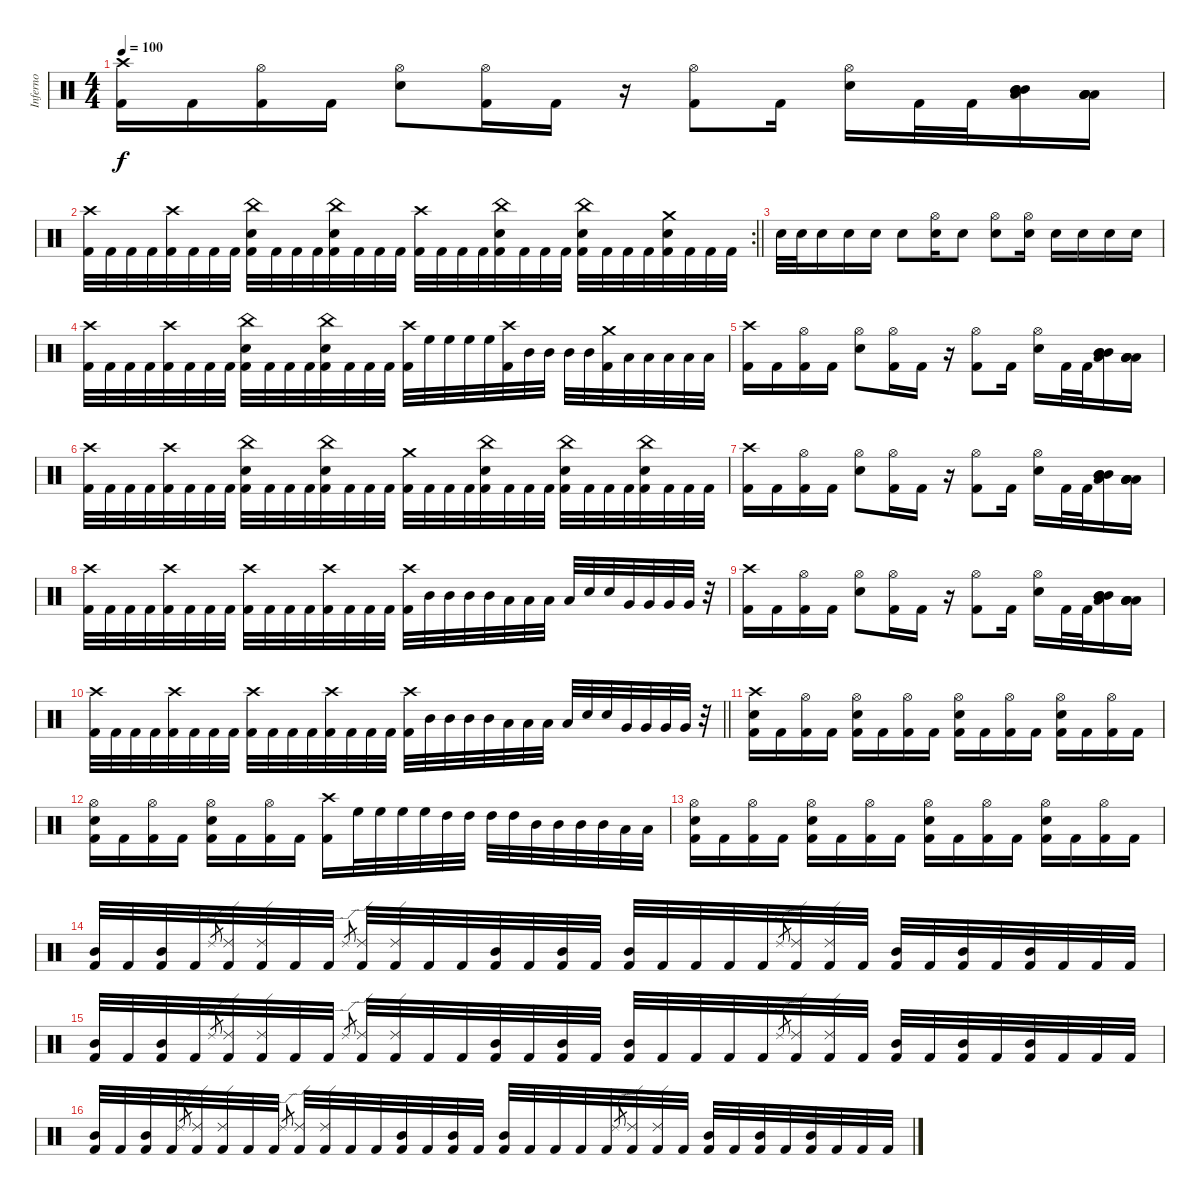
\track ("Inferno" "Inferno") {instrument percussion}
\staff {score}
\articulation defaults
\ts (4 4)
\tempo 100
\clef neutral
\ks c
("Crash high (hit)" "Kick (hit) 2").16{dy f} "Kick (hit) 2".16 ("Hi-Hat (open)" "Kick (hit) 2").16 "Kick (hit) 2".16 ("Hi-Hat (open)" "Electric Snare (hit)").8 ("Hi-Hat (open)" "Kick (hit) 2").16 "Kick (hit) 2".16 r.16 ("Hi-Hat (open)" "Kick (hit) 2").8 "Kick (hit) 2".16 ("Hi-Hat (open)" "Electric Snare (hit)").16 "Kick (hit) 2".32 "Kick (hit) 2".32 ("Mid Tom (hit)" "Mid Tom (hit)" "Mid Tom (hit)" "Low Tom (hit)").16 ("Low Tom (hit)" "Low Tom (hit)" "Low Tom (hit)" "Low Tom (hit)").16 |
\rc 2
\barLineRight lightlight
("Crash high (hit)" "Kick (hit) 2").32 "Kick (hit) 2".32 "Kick (hit) 2".32 "Kick (hit) 2".32 ("Crash high (hit)" "Kick (hit) 2").32 "Kick (hit) 2".32 "Kick (hit) 2".32 "Kick (hit) 2".32 ("China (hit)" "Kick (hit) 2" "Electric Snare (hit)").32 "Kick (hit) 2".32 "Kick (hit) 2".32 "Kick (hit) 2".32 ("China (hit)" "Kick (hit) 2" "Electric Snare (hit)").32 "Kick (hit) 2".32 "Kick (hit) 2".32 "Kick (hit) 2".32 ("Crash high (hit)" "Kick (hit) 2").32 "Kick (hit) 2".32 "Kick (hit) 2".32 "Kick (hit) 2".32 ("Kick (hit) 2" "Electric Snare (hit)" "China (hit)").32 "Kick (hit) 2".32 "Kick (hit) 2".32 "Kick (hit) 2".32 ("Kick (hit) 2" "Electric Snare (hit)" "China (hit)").32 "Kick (hit) 2".32 "Kick (hit) 2".32 "Kick (hit) 2".32 ("Crash medium (hit)" "Kick (hit) 2" "Electric Snare (hit)").32 "Kick (hit) 2".32 "Kick (hit) 2".32 "Kick (hit) 2".32 |
\section ("" "")
"Electric Snare (hit)".32 "Electric Snare (hit)".32 "Electric Snare (hit)".16 "Electric Snare (hit)".16 "Electric Snare (hit)".16 "Electric Snare (hit)".8 ("Hi-Hat (open)" "Electric Snare (hit)").16 "Electric Snare (hit)".8 ("Hi-Hat (open)" "Electric Snare (hit)").8 ("Hi-Hat (open)" "Electric Snare (hit)").16 "Electric Snare (hit)".16 "Electric Snare (hit)".16 "Electric Snare (hit)".16 "Electric Snare (hit)".16 |
("Crash high (hit)" "Kick (hit) 2").32 "Kick (hit) 2".32 "Kick (hit) 2".32 "Kick (hit) 2".32 ("Crash high (hit)" "Kick (hit) 2").32 "Kick (hit) 2".32 "Kick (hit) 2".32 "Kick (hit) 2".32 ("China (hit)" "Electric Snare (hit)" "Kick (hit) 2").32 "Kick (hit) 2".32 "Kick (hit) 2".32 "Kick (hit) 2".32 ("China (hit)" "Electric Snare (hit)" "Kick (hit) 2").32 "Kick (hit) 2".32 "Kick (hit) 2".32 "Kick (hit) 2".32 ("Crash high (hit)" "Kick (hit) 2").32 "High Floor Tom (hit)".32 "High Floor Tom (hit)".32 "High Floor Tom (hit)".32 "High Floor Tom (hit)".32 ("Crash high (hit)" "Kick (hit) 2").32 "Mid Tom (hit)".32 "Mid Tom (hit)".32 "Mid Tom (hit)".32 "Mid Tom (hit)".32 ("Crash medium (hit)" "Kick (hit) 2").32 "Low Tom (hit)".32 "Low Tom (hit)".32 "Low Tom (hit)".32 "Low Tom (hit)".32 "Low Tom (hit)".32 |
("Crash high (hit)" "Kick (hit) 2").16 "Kick (hit) 2".16 ("Hi-Hat (open)" "Kick (hit) 2").16 "Kick (hit) 2".16 ("Hi-Hat (open)" "Electric Snare (hit)").8 ("Hi-Hat (open)" "Kick (hit) 2").16 "Kick (hit) 2".16 r.16 ("Hi-Hat (open)" "Kick (hit) 2").8 "Kick (hit) 2".16 ("Hi-Hat (open)" "Electric Snare (hit)").16 "Kick (hit) 2".32 "Kick (hit) 2".32 ("Mid Tom (hit)" "Mid Tom (hit)" "Mid Tom (hit)" "Low Tom (hit)").16 ("Low Tom (hit)" "Low Tom (hit)" "Low Tom (hit)" "Low Tom (hit)").16 |
("Crash high (hit)" "Kick (hit) 2").32 "Kick (hit) 2".32 "Kick (hit) 2".32 "Kick (hit) 2".32 ("Crash high (hit)" "Kick (hit) 2").32 "Kick (hit) 2".32 "Kick (hit) 2".32 "Kick (hit) 2".32 ("China (hit)" "Electric Snare (hit)" "Kick (hit) 2").32 "Kick (hit) 2".32 "Kick (hit) 2".32 "Kick (hit) 2".32 ("China (hit)" "Electric Snare (hit)" "Kick (hit) 2").32 "Kick (hit) 2".32 "Kick (hit) 2".32 "Kick (hit) 2".32 ("Crash medium (hit)" "Kick (hit) 2").32 "Kick (hit) 2".32 "Kick (hit) 2".32 "Kick (hit) 2".32 ("China (hit)" "Electric Snare (hit)" "Kick (hit) 2").32 "Kick (hit) 2".32 "Kick (hit) 2".32 "Kick (hit) 2".32 ("China (hit)" "Electric Snare (hit)" "Kick (hit) 2").32 "Kick (hit) 2".32 "Kick (hit) 2".32 "Kick (hit) 2".32 ("China (hit)" "Electric Snare (hit)" "Kick (hit) 2").32 "Kick (hit) 2".32 "Kick (hit) 2".32 "Kick (hit) 2".32 |
("Crash high (hit)" "Kick (hit) 2").16 "Kick (hit) 2".16 ("Hi-Hat (open)" "Kick (hit) 2").16 "Kick (hit) 2".16 ("Hi-Hat (open)" "Electric Snare (hit)").8 ("Hi-Hat (open)" "Kick (hit) 2").16 "Kick (hit) 2".16 r.16 ("Hi-Hat (open)" "Kick (hit) 2").8 "Kick (hit) 2".16 ("Hi-Hat (open)" "Electric Snare (hit)").16 "Kick (hit) 2".32 "Kick (hit) 2".32 ("Mid Tom (hit)" "Mid Tom (hit)" "Mid Tom (hit)" "Low Tom (hit)").16 ("Low Tom (hit)" "Low Tom (hit)" "Low Tom (hit)" "Low Tom (hit)").16 |
("Crash high (hit)" "Kick (hit) 2").32 "Kick (hit) 2".32 "Kick (hit) 2".32 "Kick (hit) 2".32 ("Crash high (hit)" "Kick (hit) 2").32 "Kick (hit) 2".32 "Kick (hit) 2".32 "Kick (hit) 2".32 ("Crash high (hit)" "Kick (hit) 2").32 "Kick (hit) 2".32 "Kick (hit) 2".32 "Kick (hit) 2".32 ("Crash high (hit)" "Kick (hit) 2").32 "Kick (hit) 2".32 "Kick (hit) 2".32 "Kick (hit) 2".32 ("Crash high (hit)" "Kick (hit) 2").32 "Mid Tom (hit)".32 "Mid Tom (hit)".32 "Mid Tom (hit)".32 "Mid Tom (hit)".32 "Low Tom (hit)".32 "Low Tom (hit)".32 "Low Tom (hit)".32 "Low Tom (hit)".32 "Electric Snare (hit)".32 "Electric Snare (hit)".32 "Very Low Tom (hit)".32 "Very Low Tom (hit)".32 "Very Low Tom (hit)".32 "Very Low Tom (hit)".32 r.32 |
("Crash high (hit)" "Kick (hit) 2").16 "Kick (hit) 2".16 ("Hi-Hat (open)" "Kick (hit) 2").16 "Kick (hit) 2".16 ("Hi-Hat (open)" "Electric Snare (hit)").8 ("Hi-Hat (open)" "Kick (hit) 2").16 "Kick (hit) 2".16 r.16 ("Hi-Hat (open)" "Kick (hit) 2").8 "Kick (hit) 2".16 ("Hi-Hat (open)" "Electric Snare (hit)").16 "Kick (hit) 2".32 "Kick (hit) 2".32 ("Mid Tom (hit)" "Mid Tom (hit)" "Mid Tom (hit)" "Low Tom (hit)").16 ("Low Tom (hit)" "Low Tom (hit)" "Low Tom (hit)" "Low Tom (hit)").16 |
\barLineRight lightlight
("Crash high (hit)" "Kick (hit) 2").32 "Kick (hit) 2".32 "Kick (hit) 2".32 "Kick (hit) 2".32 ("Crash high (hit)" "Kick (hit) 2").32 "Kick (hit) 2".32 "Kick (hit) 2".32 "Kick (hit) 2".32 ("Crash high (hit)" "Kick (hit) 2").32 "Kick (hit) 2".32 "Kick (hit) 2".32 "Kick (hit) 2".32 ("Crash high (hit)" "Kick (hit) 2").32 "Kick (hit) 2".32 "Kick (hit) 2".32 "Kick (hit) 2".32 ("Crash high (hit)" "Kick (hit) 2").32 "Mid Tom (hit)".32 "Mid Tom (hit)".32 "Mid Tom (hit)".32 "Mid Tom (hit)".32 "Low Tom (hit)".32 "Low Tom (hit)".32 "Low Tom (hit)".32 "Low Tom (hit)".32 "Electric Snare (hit)".32 "Electric Snare (hit)".32 "Very Low Tom (hit)".32 "Very Low Tom (hit)".32 "Very Low Tom (hit)".32 "Very Low Tom (hit)".32 r.32 |
\section ("" "")
("Crash high (hit)" "Electric Snare (hit)" "Kick (hit) 2").16 "Kick (hit) 2".16 ("Hi-Hat (open)" "Kick (hit) 2").16 "Kick (hit) 2".16 ("Hi-Hat (open)" "Electric Snare (hit)" "Kick (hit) 2").16 "Kick (hit) 2".16 ("Hi-Hat (open)" "Kick (hit) 2").16 "Kick (hit) 2".16 ("Hi-Hat (open)" "Electric Snare (hit)" "Kick (hit) 2").16 "Kick (hit) 2".16 ("Hi-Hat (open)" "Kick (hit) 2").16 "Kick (hit) 2".16 ("Hi-Hat (open)" "Electric Snare (hit)" "Kick (hit) 2").16 "Kick (hit) 2".16 ("Hi-Hat (open)" "Kick (hit) 2").16 "Kick (hit) 2".16 |
("Hi-Hat (open)" "Electric Snare (hit)" "Kick (hit) 2").16 "Kick (hit) 2".16 ("Hi-Hat (open)" "Kick (hit) 2").16 "Kick (hit) 2".16 ("Hi-Hat (open)" "Electric Snare (hit)" "Kick (hit) 2").16 "Kick (hit) 2".16 ("Hi-Hat (open)" "Kick (hit) 2").16 "Kick (hit) 2".16 ("Crash high (hit)" "Kick (hit) 2").16 "High Floor Tom (hit)".32 "High Floor Tom (hit)".32 "High Floor Tom (hit)".32 "High Floor Tom (hit)".32 "High Tom (hit)".32 "High Tom (hit)".32 "High Tom (hit)".32 "High Tom (hit)".32 "Mid Tom (hit)".32 "Mid Tom (hit)".32 "Mid Tom (hit)".32 "Mid Tom (hit)".32 "Low Tom (hit)".32 "Low Tom (hit)".32 |
("Hi-Hat (open)" "Electric Snare (hit)" "Kick (hit) 2").16 "Kick (hit) 2".16 ("Hi-Hat (open)" "Kick (hit) 2").16 "Kick (hit) 2".16 ("Hi-Hat (open)" "Electric Snare (hit)" "Kick (hit) 2").16 "Kick (hit) 2".16 ("Hi-Hat (open)" "Kick (hit) 2").16 "Kick (hit) 2".16 ("Hi-Hat (open)" "Electric Snare (hit)" "Kick (hit) 2").16 "Kick (hit) 2".16 ("Hi-Hat (open)" "Kick (hit) 2").16 "Kick (hit) 2".16 ("Hi-Hat (open)" "Electric Snare (hit)" "Kick (hit) 2").16 "Kick (hit) 2".16 ("Hi-Hat (open)" "Kick (hit) 2").16 "Kick (hit) 2".16 |
("Kick (hit) 2" "Mid Tom (hit)").32 "Kick (hit) 2".32 ("Kick (hit) 2" "Mid Tom (hit)").32 "Kick (hit) 2".32 "Ride (edge) 2".8{gr} ("Kick (hit) 2" "Ride (edge) 2").32 ("Kick (hit) 2" "Ride (edge) 2").32 "Kick (hit) 2".32 "Kick (hit) 2".32 "Ride (edge) 2".8{gr} ("Kick (hit) 2" "Ride (edge) 2").32 ("Kick (hit) 2" "Ride (edge) 2").32 "Kick (hit) 2".32 "Kick (hit) 2".32 ("Kick (hit) 2" "Mid Tom (hit)").32 "Kick (hit) 2".32 ("Kick (hit) 2" "Mid Tom (hit)").32 "Kick (hit) 2".32 ("Kick (hit) 2" "Mid Tom (hit)").32 "Kick (hit) 2".32 "Kick (hit) 2".32 "Kick (hit) 2".32 "Kick (hit) 2".32 "Ride (edge) 2".8{gr} ("Kick (hit) 2" "Ride (edge) 2").32 ("Kick (hit) 2" "Ride (edge) 2").32 "Kick (hit) 2".32 ("Kick (hit) 2" "Mid Tom (hit)").32 "Kick (hit) 2".32 ("Kick (hit) 2" "Mid Tom (hit)").32 "Kick (hit) 2".32 ("Kick (hit) 2" "Mid Tom (hit)").32 "Kick (hit) 2".32 "Kick (hit) 2".32 "Kick (hit) 2".32 |
("Kick (hit) 2" "Mid Tom (hit)").32 "Kick (hit) 2".32 ("Kick (hit) 2" "Mid Tom (hit)").32 "Kick (hit) 2".32 "Ride (edge) 2".8{gr} ("Kick (hit) 2" "Ride (edge) 2").32 ("Kick (hit) 2" "Ride (edge) 2").32 "Kick (hit) 2".32 "Kick (hit) 2".32 "Ride (edge) 2".8{gr} ("Kick (hit) 2" "Ride (edge) 2").32 ("Kick (hit) 2" "Ride (edge) 2").32 "Kick (hit) 2".32 "Kick (hit) 2".32 ("Kick (hit) 2" "Mid Tom (hit)").32 "Kick (hit) 2".32 ("Kick (hit) 2" "Mid Tom (hit)").32 "Kick (hit) 2".32 ("Kick (hit) 2" "Mid Tom (hit)").32 "Kick (hit) 2".32 "Kick (hit) 2".32 "Kick (hit) 2".32 "Kick (hit) 2".32 "Ride (edge) 2".8{gr} ("Kick (hit) 2" "Ride (edge) 2").32 ("Kick (hit) 2" "Ride (edge) 2").32 "Kick (hit) 2".32 ("Kick (hit) 2" "Mid Tom (hit)").32 "Kick (hit) 2".32 ("Kick (hit) 2" "Mid Tom (hit)").32 "Kick (hit) 2".32 ("Kick (hit) 2" "Mid Tom (hit)").32 "Kick (hit) 2".32 "Kick (hit) 2".32 "Kick (hit) 2".32 |
("Kick (hit) 2" "Mid Tom (hit)").32 "Kick (hit) 2".32 ("Kick (hit) 2" "Mid Tom (hit)").32 "Kick (hit) 2".32 "Ride (edge) 2".8{gr} ("Kick (hit) 2" "Ride (edge) 2").32 ("Kick (hit) 2" "Ride (edge) 2").32 "Kick (hit) 2".32 "Kick (hit) 2".32 "Ride (edge) 2".8{gr} ("Kick (hit) 2" "Ride (edge) 2").32 ("Kick (hit) 2" "Ride (edge) 2").32 "Kick (hit) 2".32 "Kick (hit) 2".32 ("Kick (hit) 2" "Mid Tom (hit)").32 "Kick (hit) 2".32 ("Kick (hit) 2" "Mid Tom (hit)").32 "Kick (hit) 2".32 ("Kick (hit) 2" "Mid Tom (hit)").32 "Kick (hit) 2".32 "Kick (hit) 2".32 "Kick (hit) 2".32 "Kick (hit) 2".32 "Ride (edge) 2".8{gr} ("Kick (hit) 2" "Ride (edge) 2").32 ("Kick (hit) 2" "Ride (edge) 2").32 "Kick (hit) 2".32 ("Kick (hit) 2" "Mid Tom (hit)").32 "Kick (hit) 2".32 ("Kick (hit) 2" "Mid Tom (hit)").32 "Kick (hit) 2".32 ("Kick (hit) 2" "Mid Tom (hit)").32 "Kick (hit) 2".32 "Kick (hit) 2".32 "Kick (hit) 2".32
